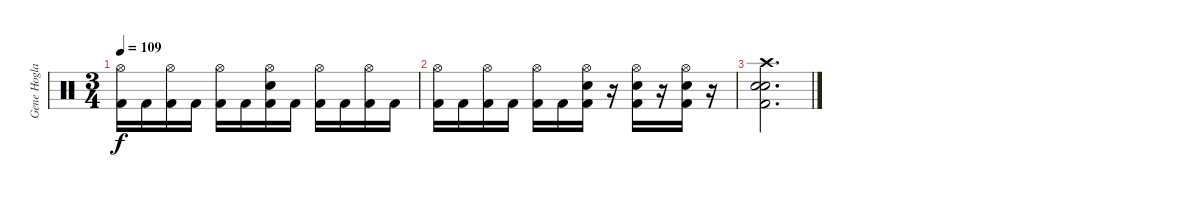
\track ("Gene Hogland" "Gene Hogla") {instrument percussion}
\staff {score}
\articulation defaults
\ts (3 4)
\tempo 109
\clef neutral
\ks c
("Hi-Hat (open)" "Kick (hit) 2").16{dy f} "Kick (hit) 2".16 ("Hi-Hat (open)" "Kick (hit) 2").16 "Kick (hit) 2".16 ("Hi-Hat (open)" "Kick (hit) 2").16 "Kick (hit) 2".16 ("Hi-Hat (open)" "Electric Snare (hit)" "Kick (hit) 2").16 "Kick (hit) 2".16 ("Hi-Hat (open)" "Kick (hit) 2").16 "Kick (hit) 2".16 ("Hi-Hat (open)" "Kick (hit) 2").16 "Kick (hit) 2".16 |
("Hi-Hat (open)" "Kick (hit) 2").16 "Kick (hit) 2".16 ("Hi-Hat (open)" "Kick (hit) 2").16 "Kick (hit) 2".16 ("Hi-Hat (open)" "Kick (hit) 2").16 "Kick (hit) 2".16 ("Hi-Hat (open)" "Electric Snare (hit)" "Kick (hit) 2").16 r.16 ("Hi-Hat (open)" "Electric Snare (hit)" "Kick (hit) 2").16 r.16 ("Hi-Hat (open)" "Electric Snare (hit)" "Kick (hit) 2").16 r.16 |
("Kick (hit) 2" "Crash high (hit)" "Electric Snare (hit)" "Electric Snare (hit)").2{d}
